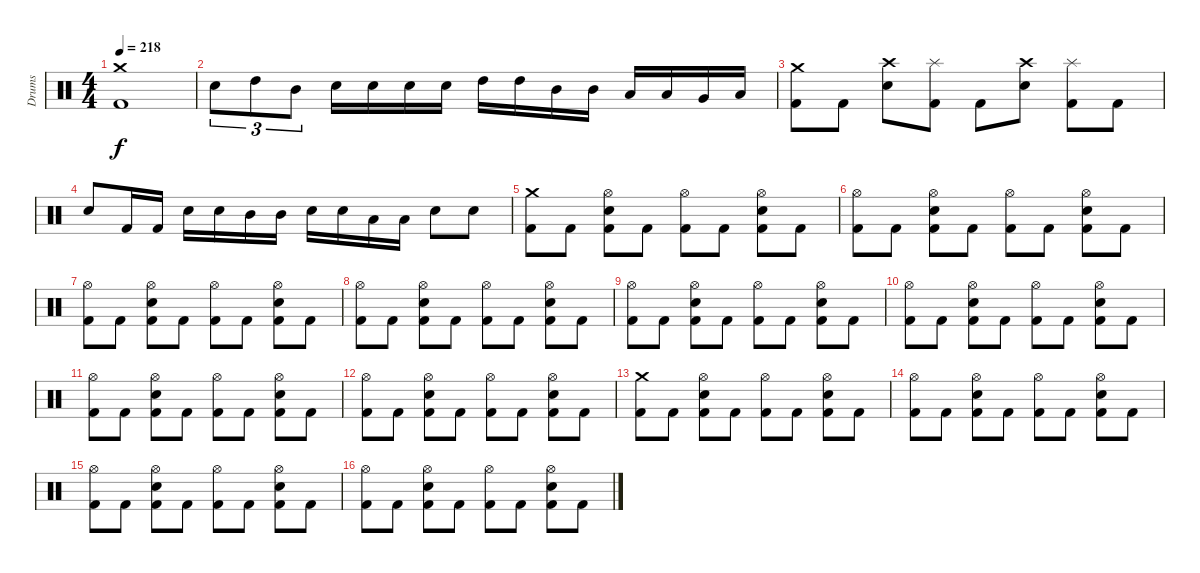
\track ("Drums" "Drums") {instrument percussion}
\staff {score}
\articulation defaults
\ts (4 4)
\tempo 218
\clef neutral
\ks c
("Crash medium (hit)" "Kick (hit) 2").1{dy f} |
"Snare (hit) 2".8{tu (3 2)} "High Tom (hit)".8{tu (3 2)} "Mid Tom (hit)".8{tu (3 2)} "Snare (hit) 2".16 "Snare (hit) 2".16 "Snare (hit) 2".16 "Snare (hit) 2".16 "High Tom (hit)".16 "High Tom (hit)".16 "Mid Tom (hit)".16 "Mid Tom (hit)".16 "Low Tom (hit)".16 "Low Tom (hit)".16 "Very Low Tom (hit)".16 "Low Floor Tom (hit)".16 |
("Crash medium (hit)" "Kick (hit) 2").8 "Kick (hit) 2".8 ("Crash high (hit)" "Snare (hit) 2").8 ("Splash (hit)" "Kick (hit) 2").8 "Kick (hit) 2".8 ("Crash high (hit)" "Snare (hit) 2").8 ("Splash (hit)" "Kick (hit) 2").8 "Kick (hit) 2".8 |
"Snare (hit) 2".8 "Kick (hit) 2".16 "Kick (hit) 2".16 "Snare (hit) 2".16 "Snare (hit) 2".16 "Mid Tom (hit)".16 "Mid Tom (hit)".16 "Snare (hit) 2".16 "Snare (hit) 2".16 "Low Tom (hit)".16 "Low Tom (hit)".16 "Snare (hit) 2".8 "Snare (hit) 2".8 |
("Crash medium (hit)" "Kick (hit) 2").8 "Kick (hit) 2".8 ("Hi-Hat (open)" "Snare (hit) 2" "Kick (hit) 2").8 "Kick (hit) 2".8 ("Hi-Hat (open)" "Kick (hit) 2").8 "Kick (hit) 2".8 ("Hi-Hat (open)" "Snare (hit) 2" "Kick (hit) 2").8 "Kick (hit) 2".8 |
("Hi-Hat (open)" "Kick (hit) 2").8 "Kick (hit) 2".8 ("Hi-Hat (open)" "Snare (hit) 2" "Kick (hit) 2").8 "Kick (hit) 2".8 ("Hi-Hat (open)" "Kick (hit) 2").8 "Kick (hit) 2".8 ("Hi-Hat (open)" "Snare (hit) 2" "Kick (hit) 2").8 "Kick (hit) 2".8 |
("Hi-Hat (open)" "Kick (hit) 2").8 "Kick (hit) 2".8 ("Hi-Hat (open)" "Snare (hit) 2" "Kick (hit) 2").8 "Kick (hit) 2".8 ("Hi-Hat (open)" "Kick (hit) 2").8 "Kick (hit) 2".8 ("Hi-Hat (open)" "Snare (hit) 2" "Kick (hit) 2").8 "Kick (hit) 2".8 |
("Hi-Hat (open)" "Kick (hit) 2").8 "Kick (hit) 2".8 ("Hi-Hat (open)" "Snare (hit) 2" "Kick (hit) 2").8 "Kick (hit) 2".8 ("Hi-Hat (open)" "Kick (hit) 2").8 "Kick (hit) 2".8 ("Hi-Hat (open)" "Snare (hit) 2" "Kick (hit) 2").8 "Kick (hit) 2".8 |
("Hi-Hat (open)" "Kick (hit) 2").8 "Kick (hit) 2".8 ("Hi-Hat (open)" "Snare (hit) 2" "Kick (hit) 2").8 "Kick (hit) 2".8 ("Hi-Hat (open)" "Kick (hit) 2").8 "Kick (hit) 2".8 ("Hi-Hat (open)" "Snare (hit) 2" "Kick (hit) 2").8 "Kick (hit) 2".8 |
("Hi-Hat (open)" "Kick (hit) 2").8 "Kick (hit) 2".8 ("Hi-Hat (open)" "Snare (hit) 2" "Kick (hit) 2").8 "Kick (hit) 2".8 ("Hi-Hat (open)" "Kick (hit) 2").8 "Kick (hit) 2".8 ("Hi-Hat (open)" "Snare (hit) 2" "Kick (hit) 2").8 "Kick (hit) 2".8 |
("Hi-Hat (open)" "Kick (hit) 2").8 "Kick (hit) 2".8 ("Hi-Hat (open)" "Snare (hit) 2" "Kick (hit) 2").8 "Kick (hit) 2".8 ("Hi-Hat (open)" "Kick (hit) 2").8 "Kick (hit) 2".8 ("Hi-Hat (open)" "Snare (hit) 2" "Kick (hit) 2").8 "Kick (hit) 2".8 |
("Hi-Hat (open)" "Kick (hit) 2").8 "Kick (hit) 2".8 ("Hi-Hat (open)" "Snare (hit) 2" "Kick (hit) 2").8 "Kick (hit) 2".8 ("Hi-Hat (open)" "Kick (hit) 2").8 "Kick (hit) 2".8 ("Hi-Hat (open)" "Snare (hit) 2" "Kick (hit) 2").8 "Kick (hit) 2".8 |
("Crash medium (hit)" "Kick (hit) 2").8 "Kick (hit) 2".8 ("Hi-Hat (open)" "Snare (hit) 2" "Kick (hit) 2").8 "Kick (hit) 2".8 ("Hi-Hat (open)" "Kick (hit) 2").8 "Kick (hit) 2".8 ("Hi-Hat (open)" "Snare (hit) 2" "Kick (hit) 2").8 "Kick (hit) 2".8 |
("Hi-Hat (open)" "Kick (hit) 2").8 "Kick (hit) 2".8 ("Hi-Hat (open)" "Snare (hit) 2" "Kick (hit) 2").8 "Kick (hit) 2".8 ("Hi-Hat (open)" "Kick (hit) 2").8 "Kick (hit) 2".8 ("Hi-Hat (open)" "Snare (hit) 2" "Kick (hit) 2").8 "Kick (hit) 2".8 |
("Hi-Hat (open)" "Kick (hit) 2").8 "Kick (hit) 2".8 ("Hi-Hat (open)" "Snare (hit) 2" "Kick (hit) 2").8 "Kick (hit) 2".8 ("Hi-Hat (open)" "Kick (hit) 2").8 "Kick (hit) 2".8 ("Hi-Hat (open)" "Snare (hit) 2" "Kick (hit) 2").8 "Kick (hit) 2".8 |
("Hi-Hat (open)" "Kick (hit) 2").8 "Kick (hit) 2".8 ("Hi-Hat (open)" "Snare (hit) 2" "Kick (hit) 2").8 "Kick (hit) 2".8 ("Hi-Hat (open)" "Kick (hit) 2").8 "Kick (hit) 2".8 ("Hi-Hat (open)" "Snare (hit) 2" "Kick (hit) 2").8 "Kick (hit) 2".8
